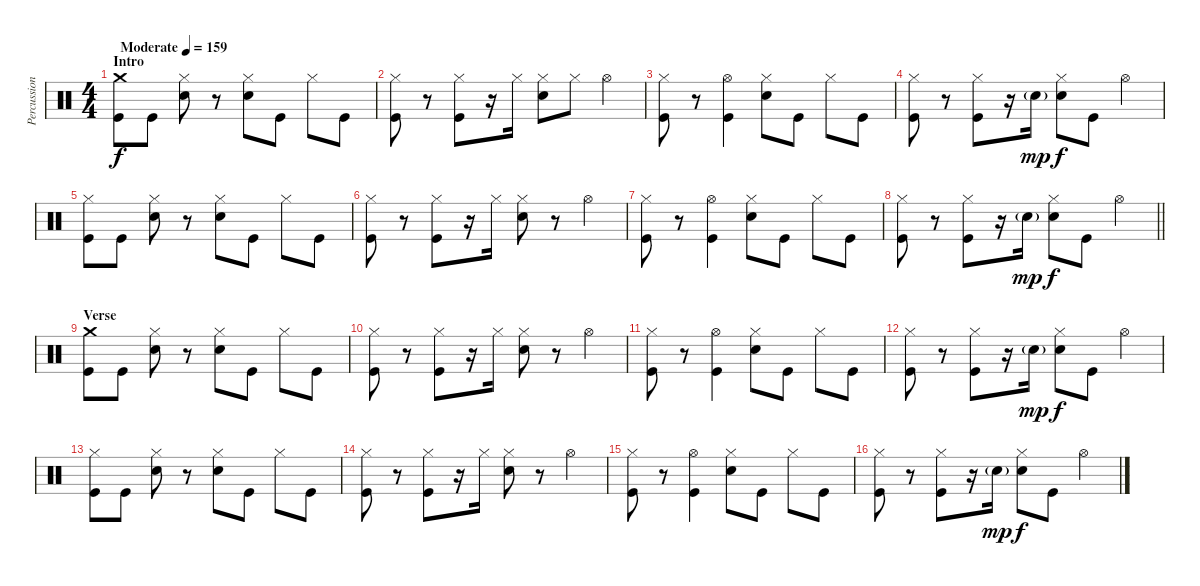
\track ("Percussion" "Percussion") {instrument percussion}
\staff {score}
\articulation defaults
\ts (4 4)
\section ("" "Intro")
\tempo (159 "Moderate")
\clef neutral
\ks c
("Crash medium (hit)" "Kick (hit)").8{dy f} "Kick (hit)".8 ("Hi-Hat (closed)" "Snare (hit) 2").8 r.8 ("Hi-Hat (closed)" "Snare (hit) 2").8 "Kick (hit)".8 "Hi-Hat (closed)".8 "Kick (hit)".8 |
("Hi-Hat (closed)" "Kick (hit)").8 r.8 ("Hi-Hat (closed)" "Kick (hit)").8 r.16 "Hi-Hat (closed)".16 ("Hi-Hat (closed)" "Snare (hit) 2").8 "Hi-Hat (closed)".8 "Hi-Hat (open)".4 |
("Hi-Hat (closed)" "Kick (hit)").8 r.8 ("Hi-Hat (open)" "Kick (hit)").4 ("Hi-Hat (closed)" "Snare (hit) 2").8 "Kick (hit)".8 "Hi-Hat (closed)".8 "Kick (hit)".8 |
("Hi-Hat (closed)" "Kick (hit)").8 r.8 ("Hi-Hat (closed)" "Kick (hit)").8 r.16 "Snare (hit) 2"{g}.16{dy mp} ("Hi-Hat (closed)" "Snare (hit) 2").8{dy f} "Kick (hit)".8 "Hi-Hat (open)".4 |
("Hi-Hat (closed)" "Kick (hit)").8 "Kick (hit)".8 ("Hi-Hat (closed)" "Snare (hit) 2").8 r.8 ("Hi-Hat (closed)" "Snare (hit) 2").8 "Kick (hit)".8 "Hi-Hat (closed)".8 "Kick (hit)".8 |
("Hi-Hat (closed)" "Kick (hit)").8 r.8 ("Hi-Hat (closed)" "Kick (hit)").8 r.16 "Hi-Hat (closed)".16 ("Hi-Hat (closed)" "Snare (hit) 2").8 r.8 "Hi-Hat (open)".4 |
("Hi-Hat (closed)" "Kick (hit)").8 r.8 ("Hi-Hat (open)" "Kick (hit)").4 ("Hi-Hat (closed)" "Snare (hit) 2").8 "Kick (hit)".8 "Hi-Hat (closed)".8 "Kick (hit)".8 |
\barLineRight lightlight
("Hi-Hat (closed)" "Kick (hit)").8 r.8 ("Hi-Hat (closed)" "Kick (hit)").8 r.16 "Snare (hit) 2"{g}.16{dy mp} ("Hi-Hat (closed)" "Snare (hit) 2").8{dy f} "Kick (hit)".8 "Hi-Hat (open)".4 |
\section ("" "Verse")
("Crash medium (hit)" "Kick (hit)").8 "Kick (hit)".8 ("Hi-Hat (closed)" "Snare (hit) 2").8 r.8 ("Hi-Hat (closed)" "Snare (hit) 2").8 "Kick (hit)".8 "Hi-Hat (closed)".8 "Kick (hit)".8 |
("Hi-Hat (closed)" "Kick (hit)").8 r.8 ("Hi-Hat (closed)" "Kick (hit)").8 r.16 "Hi-Hat (closed)".16 ("Hi-Hat (closed)" "Snare (hit) 2").8 r.8 "Hi-Hat (open)".4 |
("Hi-Hat (closed)" "Kick (hit)").8 r.8 ("Hi-Hat (open)" "Kick (hit)").4 ("Hi-Hat (closed)" "Snare (hit) 2").8 "Kick (hit)".8 "Hi-Hat (closed)".8 "Kick (hit)".8 |
("Hi-Hat (closed)" "Kick (hit)").8 r.8 ("Hi-Hat (closed)" "Kick (hit)").8 r.16 "Snare (hit) 2"{g}.16{dy mp} ("Hi-Hat (closed)" "Snare (hit) 2").8{dy f} "Kick (hit)".8 "Hi-Hat (open)".4 |
("Hi-Hat (closed)" "Kick (hit)").8 "Kick (hit)".8 ("Hi-Hat (closed)" "Snare (hit) 2").8 r.8 ("Hi-Hat (closed)" "Snare (hit) 2").8 "Kick (hit)".8 "Hi-Hat (closed)".8 "Kick (hit)".8 |
("Hi-Hat (closed)" "Kick (hit)").8 r.8 ("Hi-Hat (closed)" "Kick (hit)").8 r.16 "Hi-Hat (closed)".16 ("Hi-Hat (closed)" "Snare (hit) 2").8 r.8 "Hi-Hat (open)".4 |
("Hi-Hat (closed)" "Kick (hit)").8 r.8 ("Hi-Hat (open)" "Kick (hit)").4 ("Hi-Hat (closed)" "Snare (hit) 2").8 "Kick (hit)".8 "Hi-Hat (closed)".8 "Kick (hit)".8 |
("Hi-Hat (closed)" "Kick (hit)").8 r.8 ("Hi-Hat (closed)" "Kick (hit)").8 r.16 "Snare (hit) 2"{g}.16{dy mp} ("Hi-Hat (closed)" "Snare (hit) 2").8{dy f} "Kick (hit)".8 "Hi-Hat (open)".4
